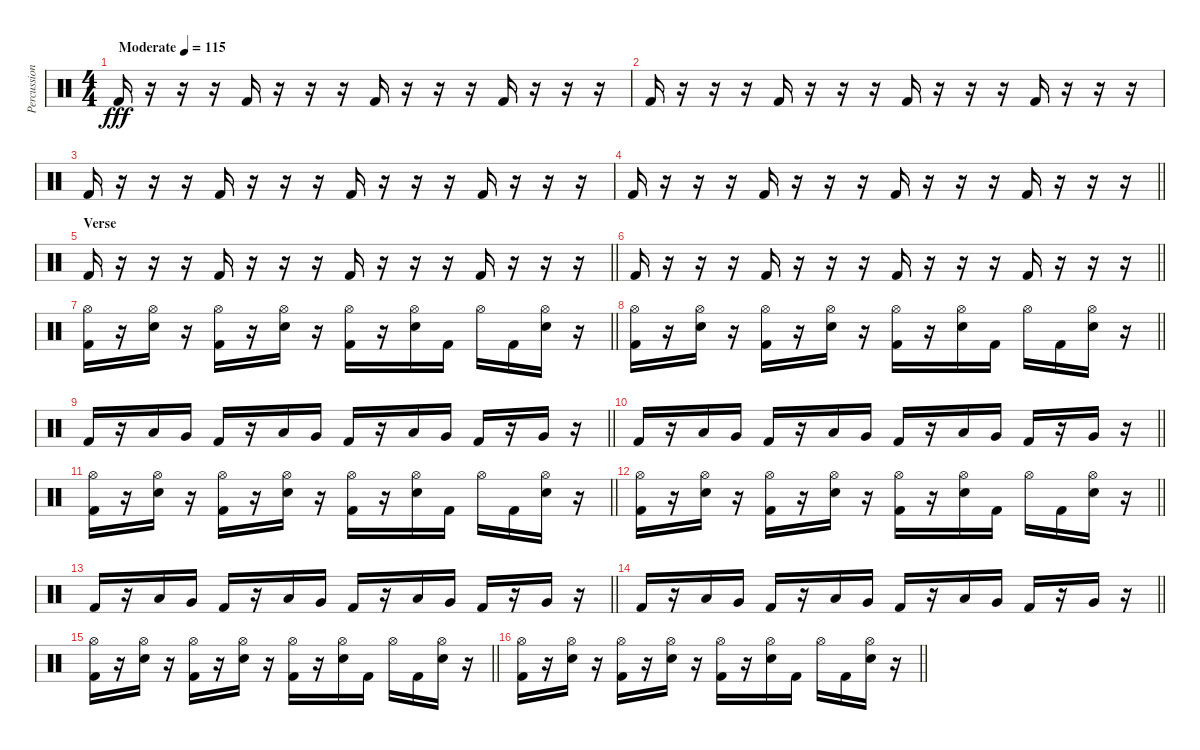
\track ("Percussion 2" "Percussion") {instrument percussion}
\staff {score}
\articulation defaults
\ts (4 4)
\tempo (115 "Moderate")
\clef neutral
\ks c "Kick (hit) 2".16{dy fff}
r.16 r.16 r.16 "Kick (hit) 2".16 r.16 r.16 r.16 "Kick (hit) 2".16 r.16 r.16 r.16 "Kick (hit) 2".16 r.16 r.16 r.16 |
"Kick (hit) 2".16 r.16 r.16 r.16 "Kick (hit) 2".16 r.16 r.16 r.16 "Kick (hit) 2".16 r.16 r.16 r.16 "Kick (hit) 2".16 r.16 r.16 r.16 |
"Kick (hit) 2".16 r.16 r.16 r.16 "Kick (hit) 2".16 r.16 r.16 r.16 "Kick (hit) 2".16 r.16 r.16 r.16 "Kick (hit) 2".16 r.16 r.16 r.16 |
\barLineRight lightlight "Kick (hit) 2".16
r.16 r.16 r.16 "Kick (hit) 2".16 r.16 r.16 r.16 "Kick (hit) 2".16 r.16 r.16 r.16 "Kick (hit) 2".16 r.16 r.16 r.16 |
\section ("" "Verse")
\barLineRight lightlight "Kick (hit) 2".16
r.16 r.16 r.16 "Kick (hit) 2".16 r.16 r.16 r.16 "Kick (hit) 2".16 r.16 r.16 r.16 "Kick (hit) 2".16 r.16 r.16 r.16 |
\barLineRight lightlight "Kick (hit) 2".16
r.16 r.16 r.16 "Kick (hit) 2".16 r.16 r.16 r.16 "Kick (hit) 2".16 r.16 r.16 r.16 "Kick (hit) 2".16 r.16 r.16 r.16 |
\barLineRight lightlight
("Hi-Hat (open)" "Kick (hit) 2").16 r.16 ("Hi-Hat (open)" "Electric Snare (hit)").16 r.16 ("Hi-Hat (open)" "Kick (hit) 2").16 r.16 ("Hi-Hat (open)" "Electric Snare (hit)").16 r.16 ("Hi-Hat (open)" "Kick (hit) 2").16 r.16 ("Hi-Hat (open)" "Electric Snare (hit)").16 "Kick (hit) 2".16 "Hi-Hat (open)".16 "Kick (hit) 2".16 ("Hi-Hat (open)" "Electric Snare (hit)").16 r.16 |
\barLineRight lightlight
("Hi-Hat (open)" "Kick (hit) 2").16 r.16 ("Hi-Hat (open)" "Electric Snare (hit)").16 r.16 ("Hi-Hat (open)" "Kick (hit) 2").16 r.16 ("Hi-Hat (open)" "Electric Snare (hit)").16 r.16 ("Hi-Hat (open)" "Kick (hit) 2").16 r.16 ("Hi-Hat (open)" "Electric Snare (hit)").16 "Kick (hit) 2".16 "Hi-Hat (open)".16 "Kick (hit) 2".16 ("Hi-Hat (open)" "Electric Snare (hit)").16 r.16 |
\barLineRight lightlight "Kick (hit) 2".16
r.16 "Low Floor Tom (hit)".16 "Very Low Tom (hit)".16 "Kick (hit) 2".16 r.16 "Low Floor Tom (hit)".16 "Very Low Tom (hit)".16 "Kick (hit) 2".16 r.16 "Low Floor Tom (hit)".16 "Very Low Tom (hit)".16 "Kick (hit) 2".16 r.16 "Very Low Tom (hit)".16 r.16 |
\barLineRight lightlight "Kick (hit) 2".16
r.16 "Low Floor Tom (hit)".16 "Very Low Tom (hit)".16 "Kick (hit) 2".16 r.16 "Low Floor Tom (hit)".16 "Very Low Tom (hit)".16 "Kick (hit) 2".16 r.16 "Low Floor Tom (hit)".16 "Very Low Tom (hit)".16 "Kick (hit) 2".16 r.16 "Very Low Tom (hit)".16 r.16 |
\barLineRight lightlight
("Hi-Hat (open)" "Kick (hit) 2").16 r.16 ("Hi-Hat (open)" "Electric Snare (hit)").16 r.16 ("Hi-Hat (open)" "Kick (hit) 2").16 r.16 ("Hi-Hat (open)" "Electric Snare (hit)").16 r.16 ("Hi-Hat (open)" "Kick (hit) 2").16 r.16 ("Hi-Hat (open)" "Electric Snare (hit)").16 "Kick (hit) 2".16 "Hi-Hat (open)".16 "Kick (hit) 2".16 ("Hi-Hat (open)" "Electric Snare (hit)").16 r.16 |
\barLineRight lightlight
("Hi-Hat (open)" "Kick (hit) 2").16 r.16 ("Hi-Hat (open)" "Electric Snare (hit)").16 r.16 ("Hi-Hat (open)" "Kick (hit) 2").16 r.16 ("Hi-Hat (open)" "Electric Snare (hit)").16 r.16 ("Hi-Hat (open)" "Kick (hit) 2").16 r.16 ("Hi-Hat (open)" "Electric Snare (hit)").16 "Kick (hit) 2".16 "Hi-Hat (open)".16 "Kick (hit) 2".16 ("Hi-Hat (open)" "Electric Snare (hit)").16 r.16 |
\barLineRight lightlight "Kick (hit) 2".16
r.16 "Low Floor Tom (hit)".16 "Very Low Tom (hit)".16 "Kick (hit) 2".16 r.16 "Low Floor Tom (hit)".16 "Very Low Tom (hit)".16 "Kick (hit) 2".16 r.16 "Low Floor Tom (hit)".16 "Very Low Tom (hit)".16 "Kick (hit) 2".16 r.16 "Very Low Tom (hit)".16 r.16 |
\barLineRight lightlight "Kick (hit) 2".16
r.16 "Low Floor Tom (hit)".16 "Very Low Tom (hit)".16 "Kick (hit) 2".16 r.16 "Low Floor Tom (hit)".16 "Very Low Tom (hit)".16 "Kick (hit) 2".16 r.16 "Low Floor Tom (hit)".16 "Very Low Tom (hit)".16 "Kick (hit) 2".16 r.16 "Very Low Tom (hit)".16 r.16 |
\barLineRight lightlight
("Hi-Hat (open)" "Kick (hit) 2").16 r.16 ("Hi-Hat (open)" "Electric Snare (hit)").16 r.16 ("Hi-Hat (open)" "Kick (hit) 2").16 r.16 ("Hi-Hat (open)" "Electric Snare (hit)").16 r.16 ("Hi-Hat (open)" "Kick (hit) 2").16 r.16 ("Hi-Hat (open)" "Electric Snare (hit)").16 "Kick (hit) 2".16 "Hi-Hat (open)".16 "Kick (hit) 2".16 ("Hi-Hat (open)" "Electric Snare (hit)").16 r.16 |
\barLineRight lightlight
("Hi-Hat (open)" "Kick (hit) 2").16 r.16 ("Hi-Hat (open)" "Electric Snare (hit)").16 r.16 ("Hi-Hat (open)" "Kick (hit) 2").16 r.16 ("Hi-Hat (open)" "Electric Snare (hit)").16 r.16 ("Hi-Hat (open)" "Kick (hit) 2").16 r.16 ("Hi-Hat (open)" "Electric Snare (hit)").16 "Kick (hit) 2".16 "Hi-Hat (open)".16 "Kick (hit) 2".16 ("Hi-Hat (open)" "Electric Snare (hit)").16 r.16
